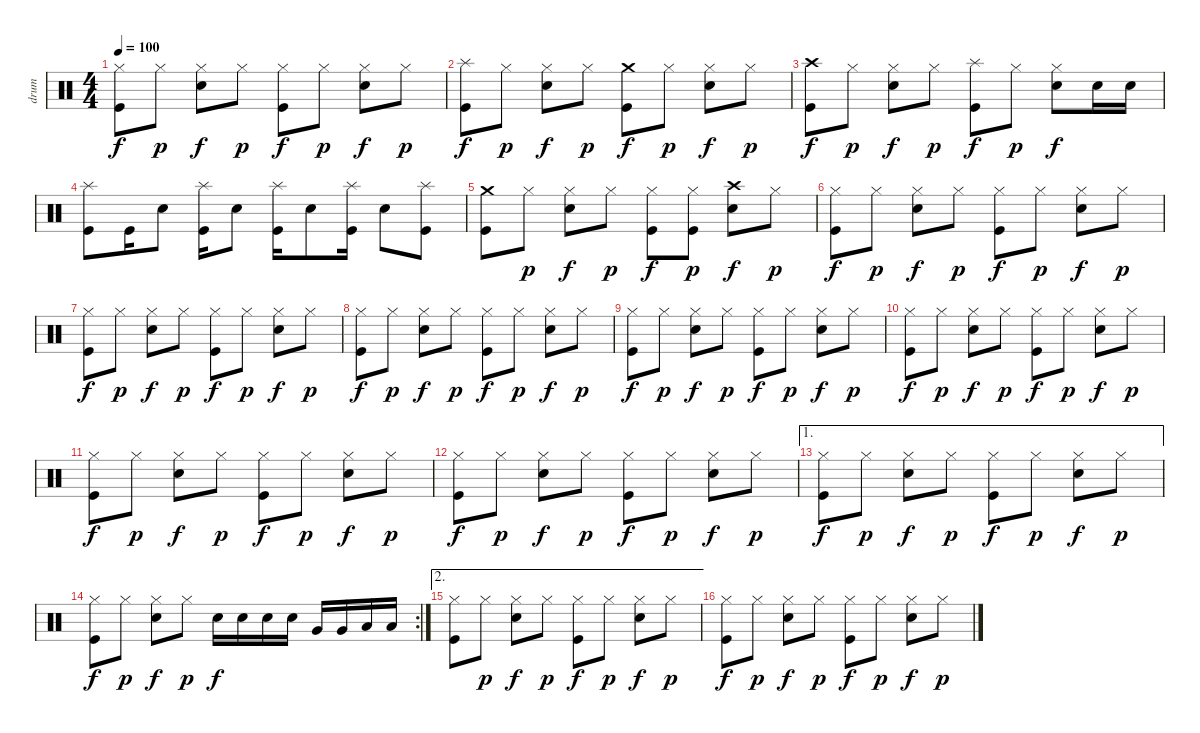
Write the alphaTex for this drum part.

\track ("drum" "drum") {instrument percussion}
\staff {score}
\articulation defaults
\ts (4 4)
\tempo 100
\clef neutral
\ks c
("Kick (hit)" "Hi-Hat (closed)").8{dy f} "Hi-Hat (closed)".8{dy p} ("Electric Snare (hit)" "Hi-Hat (closed)").8{dy f} "Hi-Hat (closed)".8{dy p} ("Kick (hit)" "Hi-Hat (closed)").8{dy f} "Hi-Hat (closed)".8{dy p} ("Electric Snare (hit)" "Hi-Hat (closed)").8{dy f} "Hi-Hat (closed)".8{dy p} |
("Kick (hit)" "Splash (hit)").8{dy f} "Hi-Hat (closed)".8{dy p} ("Electric Snare (hit)" "Hi-Hat (closed)").8{dy f} "Hi-Hat (closed)".8{dy p} ("Kick (hit)" "Crash medium (hit)").8{dy f} "Hi-Hat (closed)".8{dy p} ("Electric Snare (hit)" "Hi-Hat (closed)").8{dy f} "Hi-Hat (closed)".8{dy p} |
("Kick (hit)" "Crash high (hit)").8{dy f} "Hi-Hat (closed)".8{dy p} ("Electric Snare (hit)" "Hi-Hat (closed)").8{dy f} "Hi-Hat (closed)".8{dy p} ("Kick (hit)" "Splash (hit)").8{dy f} "Hi-Hat (closed)".8{dy p} ("Electric Snare (hit)" "Hi-Hat (closed)").8{dy f} "Electric Snare (hit)".16 "Electric Snare (hit)".16 |
("Kick (hit)" "Splash (hit)").8 "Kick (hit)".16 "Electric Snare (hit)".8 ("Kick (hit)" "Splash (hit)").16 "Electric Snare (hit)".8 ("Kick (hit)" "Splash (hit)").16 "Electric Snare (hit)".8 ("Kick (hit)" "Splash (hit)").16 "Electric Snare (hit)".8 ("Kick (hit)" "Splash (hit)").8 |
("Kick (hit)" "Crash medium (hit)").8 "Hi-Hat (closed)".8{dy p} ("Electric Snare (hit)" "Hi-Hat (closed)").8{dy f} "Hi-Hat (closed)".8{dy p} ("Kick (hit)" "Hi-Hat (closed)").8{dy f} ("Kick (hit)" "Hi-Hat (closed)").8{dy p} ("Electric Snare (hit)" "Crash high (hit)").8{dy f} "Hi-Hat (closed)".8{dy p} |
("Kick (hit)" "Hi-Hat (closed)").8{dy f} "Hi-Hat (closed)".8{dy p} ("Electric Snare (hit)" "Hi-Hat (closed)").8{dy f} "Hi-Hat (closed)".8{dy p} ("Kick (hit)" "Hi-Hat (closed)").8{dy f} "Hi-Hat (closed)".8{dy p} ("Electric Snare (hit)" "Hi-Hat (closed)").8{dy f} "Hi-Hat (closed)".8{dy p} |
("Kick (hit)" "Hi-Hat (closed)").8{dy f} "Hi-Hat (closed)".8{dy p} ("Electric Snare (hit)" "Hi-Hat (closed)").8{dy f} "Hi-Hat (closed)".8{dy p} ("Kick (hit)" "Hi-Hat (closed)").8{dy f} "Hi-Hat (closed)".8{dy p} ("Electric Snare (hit)" "Hi-Hat (closed)").8{dy f} "Hi-Hat (closed)".8{dy p} |
("Kick (hit)" "Hi-Hat (closed)").8{dy f} "Hi-Hat (closed)".8{dy p} ("Electric Snare (hit)" "Hi-Hat (closed)").8{dy f} "Hi-Hat (closed)".8{dy p} ("Kick (hit)" "Hi-Hat (closed)").8{dy f} "Hi-Hat (closed)".8{dy p} ("Electric Snare (hit)" "Hi-Hat (closed)").8{dy f} "Hi-Hat (closed)".8{dy p} |
("Kick (hit)" "Hi-Hat (closed)").8{dy f} "Hi-Hat (closed)".8{dy p} ("Electric Snare (hit)" "Hi-Hat (closed)").8{dy f} "Hi-Hat (closed)".8{dy p} ("Kick (hit)" "Hi-Hat (closed)").8{dy f} "Hi-Hat (closed)".8{dy p} ("Electric Snare (hit)" "Hi-Hat (closed)").8{dy f} "Hi-Hat (closed)".8{dy p} |
("Kick (hit)" "Hi-Hat (closed)").8{dy f} "Hi-Hat (closed)".8{dy p} ("Electric Snare (hit)" "Hi-Hat (closed)").8{dy f} "Hi-Hat (closed)".8{dy p} ("Kick (hit)" "Hi-Hat (closed)").8{dy f} "Hi-Hat (closed)".8{dy p} ("Electric Snare (hit)" "Hi-Hat (closed)").8{dy f} "Hi-Hat (closed)".8{dy p} |
("Kick (hit)" "Hi-Hat (closed)").8{dy f} "Hi-Hat (closed)".8{dy p} ("Electric Snare (hit)" "Hi-Hat (closed)").8{dy f} "Hi-Hat (closed)".8{dy p} ("Kick (hit)" "Hi-Hat (closed)").8{dy f} "Hi-Hat (closed)".8{dy p} ("Electric Snare (hit)" "Hi-Hat (closed)").8{dy f} "Hi-Hat (closed)".8{dy p} |
("Kick (hit)" "Hi-Hat (closed)").8{dy f} "Hi-Hat (closed)".8{dy p} ("Electric Snare (hit)" "Hi-Hat (closed)").8{dy f} "Hi-Hat (closed)".8{dy p} ("Kick (hit)" "Hi-Hat (closed)").8{dy f} "Hi-Hat (closed)".8{dy p} ("Electric Snare (hit)" "Hi-Hat (closed)").8{dy f} "Hi-Hat (closed)".8{dy p} |
\ae 1
("Kick (hit)" "Hi-Hat (closed)").8{dy f} "Hi-Hat (closed)".8{dy p} ("Electric Snare (hit)" "Hi-Hat (closed)").8{dy f} "Hi-Hat (closed)".8{dy p} ("Kick (hit)" "Hi-Hat (closed)").8{dy f} "Hi-Hat (closed)".8{dy p} ("Electric Snare (hit)" "Hi-Hat (closed)").8{dy f} "Hi-Hat (closed)".8{dy p} |
\rc 2
("Kick (hit)" "Hi-Hat (closed)").8{dy f} "Hi-Hat (closed)".8{dy p} ("Electric Snare (hit)" "Hi-Hat (closed)").8{dy f} "Hi-Hat (closed)".8{dy p} "Electric Snare (hit)".16{dy f} "Electric Snare (hit)".16 "Electric Snare (hit)".16 "Electric Snare (hit)".16 "Very Low Tom (hit)".16 "Very Low Tom (hit)".16 "Low Floor Tom (hit)".16 "Low Floor Tom (hit)".16 |
\ae 2
("Kick (hit)" "Hi-Hat (closed)").8 "Hi-Hat (closed)".8{dy p} ("Electric Snare (hit)" "Hi-Hat (closed)").8{dy f} "Hi-Hat (closed)".8{dy p} ("Kick (hit)" "Hi-Hat (closed)").8{dy f} "Hi-Hat (closed)".8{dy p} ("Electric Snare (hit)" "Hi-Hat (closed)").8{dy f} "Hi-Hat (closed)".8{dy p} |
("Kick (hit)" "Hi-Hat (closed)").8{dy f} "Hi-Hat (closed)".8{dy p} ("Electric Snare (hit)" "Hi-Hat (closed)").8{dy f} "Hi-Hat (closed)".8{dy p} ("Kick (hit)" "Hi-Hat (closed)").8{dy f} "Hi-Hat (closed)".8{dy p} ("Electric Snare (hit)" "Hi-Hat (closed)").8{dy f} "Hi-Hat (closed)".8{dy p}
